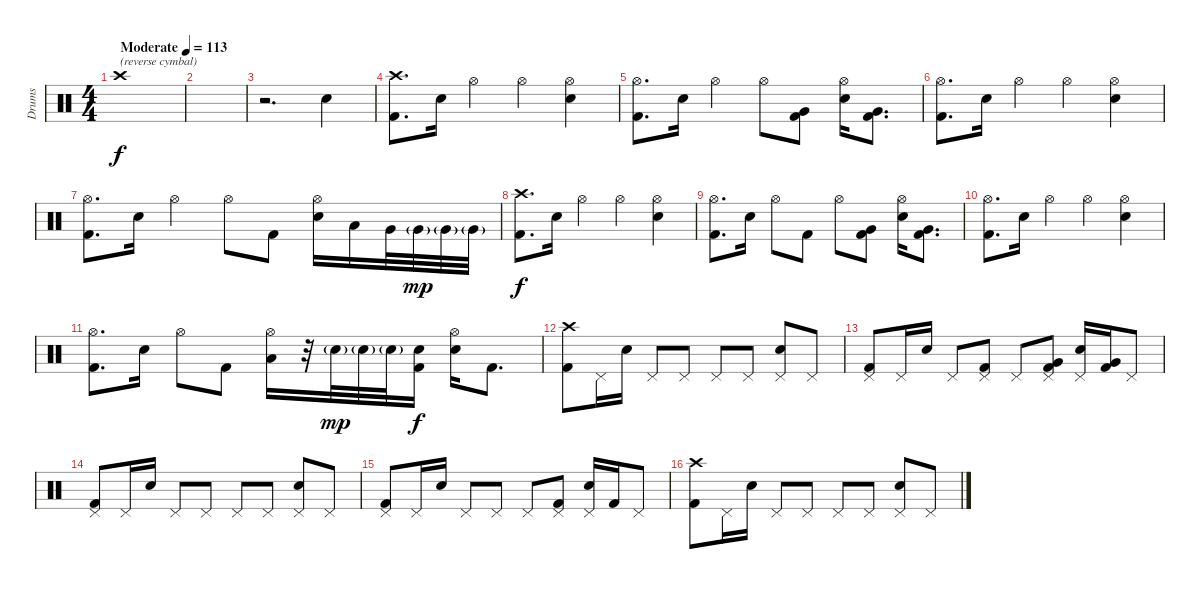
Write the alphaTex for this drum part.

\track ("Drums" "Drums") {instrument percussion}
\staff {score}
\articulation defaults
\ts (4 4)
\tempo (113 "Moderate")
\clef neutral
\ks c "Crash high (hit)".1{txt "(reverse cymbal)" dy f}
|
|
r.2{d} "Snare (hit) 2".4 |
("Crash high (hit)" "Kick (hit) 2").8{d} "Snare (hit) 2".16 "Hi-Hat (open)".4 "Hi-Hat (open)".4 ("Hi-Hat (open)" "Snare (hit) 2").4 |
("Hi-Hat (open)" "Kick (hit) 2").8{d} "Snare (hit) 2".16 "Hi-Hat (open)".4 "Hi-Hat (open)".8 ("Very Low Tom (hit)" "Kick (hit) 2").8 ("Hi-Hat (open)" "Snare (hit) 2").16 ("Very Low Tom (hit)" "Kick (hit) 2").8{d} |
("Hi-Hat (open)" "Kick (hit) 2").8{d} "Snare (hit) 2".16 "Hi-Hat (open)".4 "Hi-Hat (open)".4 ("Hi-Hat (open)" "Snare (hit) 2").4 |
("Hi-Hat (open)" "Kick (hit) 2").8{d} "Snare (hit) 2".16 "Hi-Hat (open)".4 "Hi-Hat (open)".8 "Kick (hit) 2".8 ("Hi-Hat (open)" "Snare (hit) 2").16 "Low Tom (hit)".16 "Very Low Tom (hit)".32 "Very Low Tom (hit)"{g}.32{dy mp} "Very Low Tom (hit)"{g}.32 "Very Low Tom (hit)"{g}.32 |
("Crash high (hit)" "Kick (hit) 2").8{d dy f} "Snare (hit) 2".16 "Hi-Hat (open)".4 "Hi-Hat (open)".4 ("Hi-Hat (open)" "Snare (hit) 2").4 |
("Hi-Hat (open)" "Kick (hit) 2").8{d} "Snare (hit) 2".16 "Hi-Hat (open)".8 "Kick (hit) 2".8 "Hi-Hat (open)".8 ("Very Low Tom (hit)" "Kick (hit) 2").8 ("Hi-Hat (open)" "Snare (hit) 2").16 ("Very Low Tom (hit)" "Kick (hit) 2").8{d} |
("Hi-Hat (open)" "Kick (hit) 2").8{d} "Snare (hit) 2".16 "Hi-Hat (open)".4 "Hi-Hat (open)".4 ("Hi-Hat (open)" "Snare (hit) 2").4 |
("Hi-Hat (open)" "Kick (hit) 2").8{d} "Snare (hit) 2".16 "Hi-Hat (open)".8 "Kick (hit) 2".8 ("Hi-Hat (open)" "Low Tom (hit)").16 r.32 "Snare (hit) 2"{g}.32{dy mp} "Snare (hit) 2"{g}.32 "Snare (hit) 2"{g}.32 ("Snare (hit) 2" "Kick (hit) 2").16{dy f} ("Hi-Hat (open)" "Snare (hit) 2").16 "Kick (hit) 2".8{d} |
("Crash high (hit)" "Kick (hit) 2").8 "Pedal Hi-Hat (hit)".16 "Snare (hit) 2".16 "Pedal Hi-Hat (hit)".8 "Pedal Hi-Hat (hit)".8 "Pedal Hi-Hat (hit)".8 "Pedal Hi-Hat (hit)".8 ("Pedal Hi-Hat (hit)" "Snare (hit) 2").8 "Pedal Hi-Hat (hit)".8 |
("Pedal Hi-Hat (hit)" "Kick (hit) 2").8 "Pedal Hi-Hat (hit)".16 "Snare (hit) 2".16 "Pedal Hi-Hat (hit)".8 ("Pedal Hi-Hat (hit)" "Kick (hit) 2").8 "Pedal Hi-Hat (hit)".8 ("Pedal Hi-Hat (hit)" "Very Low Tom (hit)" "Kick (hit) 2").8 ("Pedal Hi-Hat (hit)" "Snare (hit) 2").16 ("Very Low Tom (hit)" "Kick (hit) 2").16 "Pedal Hi-Hat (hit)".8 |
("Pedal Hi-Hat (hit)" "Kick (hit) 2").8 "Pedal Hi-Hat (hit)".16 "Snare (hit) 2".16 "Pedal Hi-Hat (hit)".8 "Pedal Hi-Hat (hit)".8 "Pedal Hi-Hat (hit)".8 "Pedal Hi-Hat (hit)".8 ("Pedal Hi-Hat (hit)" "Snare (hit) 2").8 "Pedal Hi-Hat (hit)".8 |
("Pedal Hi-Hat (hit)" "Kick (hit) 2").8 "Pedal Hi-Hat (hit)".16 "Snare (hit) 2".16 "Pedal Hi-Hat (hit)".8 "Pedal Hi-Hat (hit)".8 "Pedal Hi-Hat (hit)".8 ("Pedal Hi-Hat (hit)" "Kick (hit) 2").8 ("Pedal Hi-Hat (hit)" "Snare (hit) 2").16 "Kick (hit) 2".16 "Pedal Hi-Hat (hit)".8 |
("Crash high (hit)" "Kick (hit) 2").8 "Pedal Hi-Hat (hit)".16 "Snare (hit) 2".16 "Pedal Hi-Hat (hit)".8 "Pedal Hi-Hat (hit)".8 "Pedal Hi-Hat (hit)".8 "Pedal Hi-Hat (hit)".8 ("Pedal Hi-Hat (hit)" "Snare (hit) 2").8 "Pedal Hi-Hat (hit)".8
